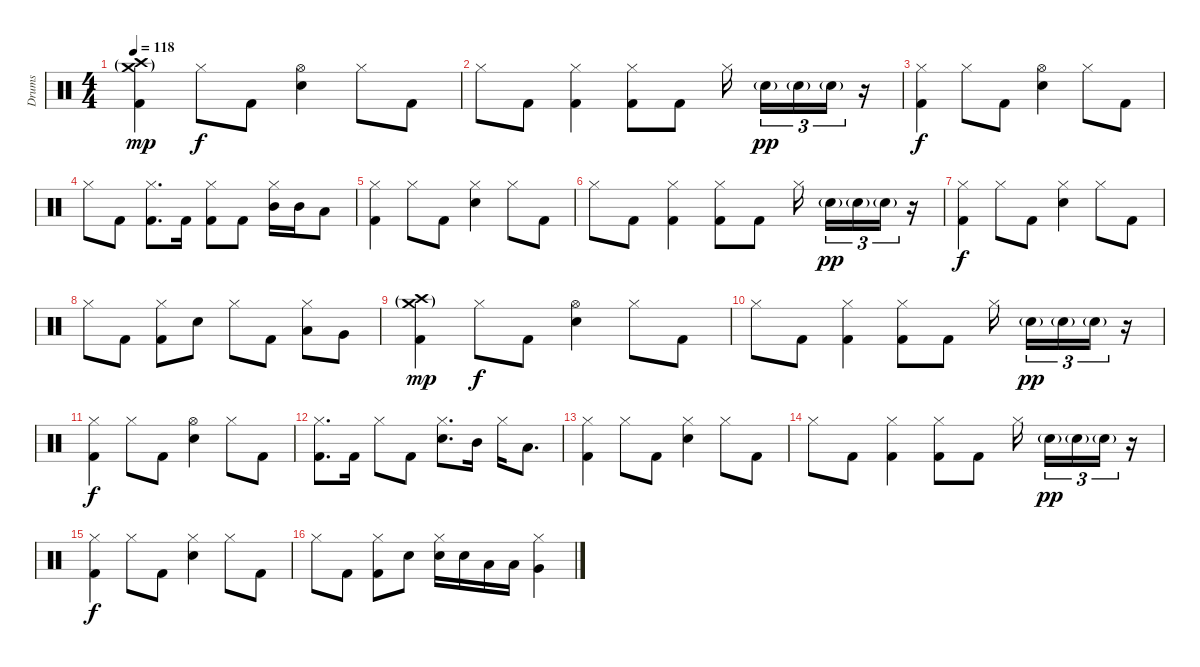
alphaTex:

\track ("Drums" "Drums") {instrument percussion}
\staff {score}
\articulation defaults
\ts (4 4)
\tempo 118
\clef neutral
\ks c
("Crash medium (hit)"{g} "Crash high (hit)"{g} "Kick (hit) 2").4{dy mp} "Hi-Hat (closed)".8{dy f} "Kick (hit) 2".8 ("Hi-Hat (open)" "Electric Snare (hit)").4 "Hi-Hat (closed)".8 "Kick (hit) 2".8 |
"Hi-Hat (closed)".8 "Kick (hit) 2".8 ("Hi-Hat (closed)" "Kick (hit) 2").4 ("Hi-Hat (closed)" "Kick (hit) 2").8 "Kick (hit) 2".8 "Hi-Hat (closed)".16{beam splitsecondary} "Electric Snare (hit)"{g}.16{tu (3 2) dy pp} "Electric Snare (hit)"{g}.16{tu (3 2)} "Electric Snare (hit)"{g}.16{tu (3 2)} r.16 |
("Hi-Hat (closed)" "Kick (hit) 2").4{dy f} "Hi-Hat (closed)".8 "Kick (hit) 2".8 ("Hi-Hat (open)" "Electric Snare (hit)").4 "Hi-Hat (closed)".8 "Kick (hit) 2".8 |
"Hi-Hat (closed)".8 "Kick (hit) 2".8 ("Hi-Hat (closed)" "Kick (hit) 2").8{d} "Kick (hit) 2".16 ("Hi-Hat (closed)" "Kick (hit) 2").8 "Kick (hit) 2".8 ("Hi-Hat (closed)" "Mid Tom (hit)").16 "Mid Tom (hit)".16 "Low Tom (hit)".8 |
("Hi-Hat (closed)" "Kick (hit) 2").4 "Hi-Hat (closed)".8 "Kick (hit) 2".8 ("Hi-Hat (closed)" "Electric Snare (hit)").4 "Hi-Hat (closed)".8 "Kick (hit) 2".8 |
"Hi-Hat (closed)".8 "Kick (hit) 2".8 ("Hi-Hat (closed)" "Kick (hit) 2").4 ("Hi-Hat (closed)" "Kick (hit) 2").8 "Kick (hit) 2".8 "Hi-Hat (closed)".16{beam splitsecondary} "Electric Snare (hit)"{g}.16{tu (3 2) dy pp} "Electric Snare (hit)"{g}.16{tu (3 2)} "Electric Snare (hit)"{g}.16{tu (3 2)} r.16 |
("Hi-Hat (closed)" "Kick (hit) 2").4{dy f} "Hi-Hat (closed)".8 "Kick (hit) 2".8 ("Hi-Hat (closed)" "Electric Snare (hit)").4 "Hi-Hat (closed)".8 "Kick (hit) 2".8 |
"Hi-Hat (closed)".8 "Kick (hit) 2".8 ("Hi-Hat (closed)" "Kick (hit) 2").8 "Electric Snare (hit)".8 "Hi-Hat (closed)".8 "Kick (hit) 2".8 ("Hi-Hat (closed)" "Low Tom (hit)").8 "Very Low Tom (hit)".8 |
("Crash medium (hit)"{g} "Crash high (hit)"{g} "Kick (hit) 2").4{dy mp} "Hi-Hat (closed)".8{dy f} "Kick (hit) 2".8 ("Hi-Hat (open)" "Electric Snare (hit)").4 "Hi-Hat (closed)".8 "Kick (hit) 2".8 |
"Hi-Hat (closed)".8 "Kick (hit) 2".8 ("Hi-Hat (closed)" "Kick (hit) 2").4 ("Hi-Hat (closed)" "Kick (hit) 2").8 "Kick (hit) 2".8 "Hi-Hat (closed)".16{beam splitsecondary} "Electric Snare (hit)"{g}.16{tu (3 2) dy pp} "Electric Snare (hit)"{g}.16{tu (3 2)} "Electric Snare (hit)"{g}.16{tu (3 2)} r.16 |
("Hi-Hat (closed)" "Kick (hit) 2").4{dy f} "Hi-Hat (closed)".8 "Kick (hit) 2".8 ("Hi-Hat (open)" "Electric Snare (hit)").4 "Hi-Hat (closed)".8 "Kick (hit) 2".8 |
("Hi-Hat (closed)" "Kick (hit) 2").8{d} "Kick (hit) 2".16 "Hi-Hat (closed)".8 "Kick (hit) 2".8 ("Hi-Hat (closed)" "Electric Snare (hit)").8{d} "Mid Tom (hit)".16 "Hi-Hat (closed)".16 "Low Tom (hit)".8{d} |
("Hi-Hat (closed)" "Kick (hit) 2").4 "Hi-Hat (closed)".8 "Kick (hit) 2".8 ("Hi-Hat (closed)" "Electric Snare (hit)").4 "Hi-Hat (closed)".8 "Kick (hit) 2".8 |
"Hi-Hat (closed)".8 "Kick (hit) 2".8 ("Hi-Hat (closed)" "Kick (hit) 2").4 ("Hi-Hat (closed)" "Kick (hit) 2").8 "Kick (hit) 2".8 "Hi-Hat (closed)".16{beam splitsecondary} "Electric Snare (hit)"{g}.16{tu (3 2) dy pp} "Electric Snare (hit)"{g}.16{tu (3 2)} "Electric Snare (hit)"{g}.16{tu (3 2)} r.16 |
("Hi-Hat (closed)" "Kick (hit) 2").4{dy f} "Hi-Hat (closed)".8 "Kick (hit) 2".8 ("Hi-Hat (closed)" "Electric Snare (hit)").4 "Hi-Hat (closed)".8 "Kick (hit) 2".8 |
"Hi-Hat (closed)".8 "Kick (hit) 2".8 ("Hi-Hat (closed)" "Kick (hit) 2").8 "Electric Snare (hit)".8 ("Hi-Hat (closed)" "Electric Snare (hit)").16 "Electric Snare (hit)".16 "Low Tom (hit)".16 "Low Floor Tom (hit)".16 ("Hi-Hat (closed)" "Very Low Tom (hit)").4
